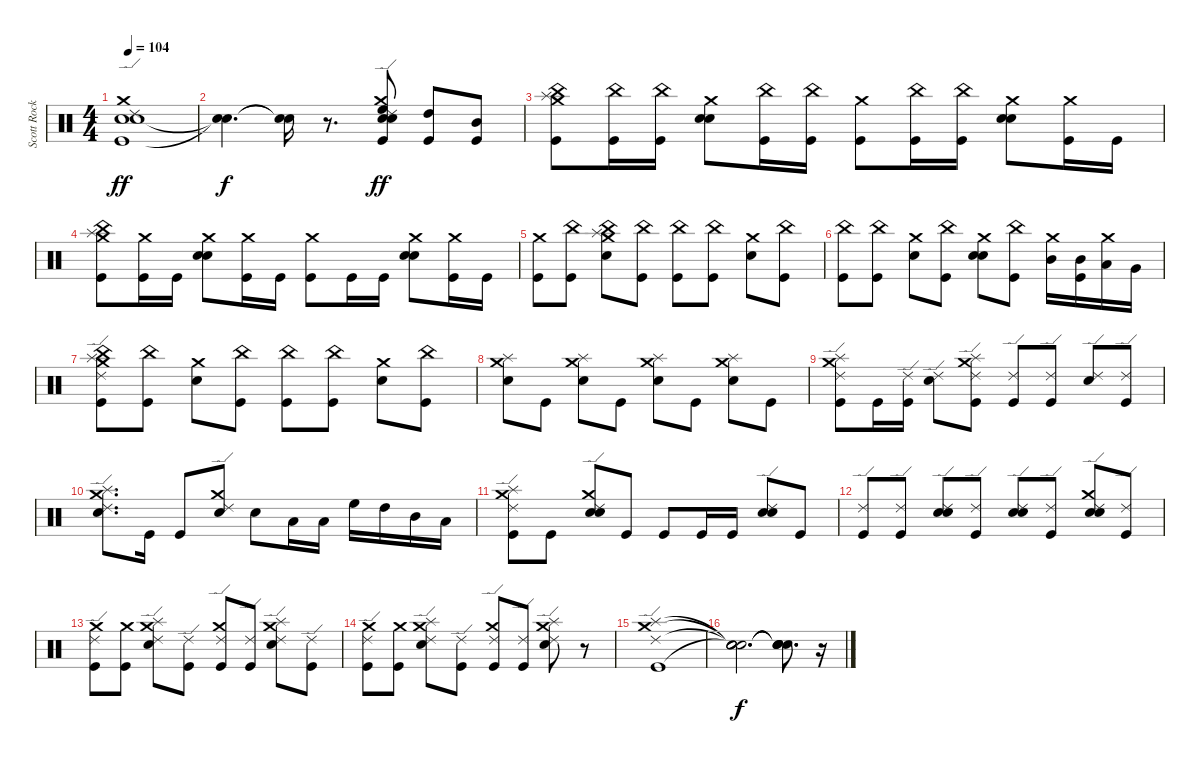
\track ("Scott Rockenfield" "Scott Rock") {instrument percussion}
\staff {score}
\articulation defaults
\ts (4 4)
\tempo 104
\clef neutral
\ks c
("Kick (hit)" "Snare (hit) 2" "Electric Snare (hit)" "Crash medium (hit)" "Ride (edge) 2").1{dy ff} |
("Snare (hit)"{t} "Snare (hit)"{t}).4{d dy f} ("Snare (hit)"{t} "Snare (hit)"{t}).16 r.8{d} ("Kick (hit)" "Snare (hit) 2" "Electric Snare (hit)" "High Floor Tom (hit)" "Crash medium (hit)" "Ride (edge) 2").8{dy ff} ("Kick (hit)" "High Tom (hit)").8 ("Kick (hit)" "Mid Tom (hit)").8 |
("Kick (hit)" "China (hit)" "Splash (hit)" "Crash medium (hit)").8 ("Kick (hit)" "China (hit)").16 ("Kick (hit)" "China (hit)").16 ("Snare (hit) 2" "Electric Snare (hit)" "Crash medium (hit)").8 ("Kick (hit)" "China (hit)").16 ("Kick (hit)" "China (hit)").16 ("Kick (hit)" "Crash medium (hit)").8 ("Kick (hit)" "China (hit)").16 ("Kick (hit)" "China (hit)").16 ("Snare (hit) 2" "Electric Snare (hit)" "Crash medium (hit)").8 ("Kick (hit)" "Crash medium (hit)").16 "Kick (hit)".16 |
("Kick (hit)" "China (hit)" "Splash (hit)" "Crash medium (hit)").8 ("Kick (hit)" "Crash medium (hit)").16 "Kick (hit)".16 ("Snare (hit) 2" "Electric Snare (hit)" "Crash medium (hit)").8 ("Kick (hit)" "Crash medium (hit)").16 "Kick (hit)".16 ("Kick (hit)" "Crash medium (hit)").8 "Kick (hit)".16 "Kick (hit)".16 ("Snare (hit) 2" "Electric Snare (hit)" "Crash medium (hit)").8 ("Kick (hit)" "Crash medium (hit)").16 "Kick (hit)".16 |
("Kick (hit)" "Crash medium (hit)").8 ("Kick (hit)" "China (hit)").8 ("Electric Snare (hit)" "China (hit)" "Splash (hit)" "Crash medium (hit)").8 ("Kick (hit)" "China (hit)").8 ("Kick (hit)" "China (hit)").8 ("Kick (hit)" "China (hit)").8 ("Electric Snare (hit)" "Crash medium (hit)").8 ("Kick (hit)" "China (hit)").8 |
("Kick (hit)" "China (hit)").8 ("Kick (hit)" "China (hit)").8 ("Electric Snare (hit)" "Crash medium (hit)").8 ("Kick (hit)" "China (hit)").8 ("Snare (hit) 2" "Electric Snare (hit)" "Crash medium (hit)").8 ("Kick (hit)" "China (hit)").8 ("Mid Tom (hit)" "Crash medium (hit)").16 ("Kick (hit)" "Mid Tom (hit)").16 ("Low Tom (hit)" "Crash medium (hit)").16 "Very Low Tom (hit)".16 |
("Kick (hit)" "China (hit)" "Splash (hit)" "Crash medium (hit)" "Ride (edge) 2").8 ("Kick (hit)" "China (hit)").8 ("Electric Snare (hit)" "Crash medium (hit)").8 ("Kick (hit)" "China (hit)").8 ("Kick (hit)" "China (hit)").8 ("Kick (hit)" "China (hit)").8 ("Electric Snare (hit)" "Crash medium (hit)").8 ("Kick (hit)" "China (hit)").8 |
("Electric Snare (hit)" "Splash (hit)" "Crash medium (hit)").8 "Kick (hit)".8 ("Electric Snare (hit)" "Splash (hit)" "Crash medium (hit)").8 "Kick (hit)".8 ("Electric Snare (hit)" "Splash (hit)" "Crash medium (hit)").8 "Kick (hit)".8 ("Electric Snare (hit)" "Splash (hit)" "Crash medium (hit)").8 "Kick (hit)".8 |
("Kick (hit)" "Splash (hit)" "Crash medium (hit)" "Ride (edge) 2").8 "Kick (hit)".16 ("Kick (hit)" "Ride (edge) 2").16 ("Electric Snare (hit)" "Ride (edge) 2").8 ("Kick (hit)" "Splash (hit)" "Crash medium (hit)" "Ride (edge) 2").8 ("Kick (hit)" "Ride (edge) 2").8 ("Kick (hit)" "Ride (edge) 2").8 ("Electric Snare (hit)" "Ride (edge) 2").8 ("Kick (hit)" "Ride (edge) 2").8 |
("Electric Snare (hit)" "Splash (hit)" "Crash medium (hit)" "Ride (edge) 2").8{d} "Kick (hit)".16 "Kick (hit)".8 ("Electric Snare (hit)" "Crash medium (hit)" "Ride (edge) 2").8 "Electric Snare (hit)".8 "Low Tom (hit)".16 "Low Tom (hit)".16 "High Floor Tom (hit)".16 "High Tom (hit)".16 "Mid Tom (hit)".16 "Low Tom (hit)".16 |
("Kick (hit)" "Splash (hit)" "Crash medium (hit)" "Ride (edge) 2").8 "Kick (hit)".8 ("Snare (hit) 2" "Electric Snare (hit)" "Crash medium (hit)" "Ride (edge) 2").8 "Kick (hit)".8 "Kick (hit)".8 "Kick (hit)".16 "Kick (hit)".16 ("Snare (hit) 2" "Electric Snare (hit)" "Ride (edge) 2").8 "Kick (hit)".8 |
("Kick (hit)" "Ride (edge) 2").8 ("Kick (hit)" "Ride (edge) 2").8 ("Snare (hit) 2" "Electric Snare (hit)" "Ride (edge) 2").8 ("Kick (hit)" "Ride (edge) 2").8 ("Snare (hit) 2" "Electric Snare (hit)" "Ride (edge) 2").8 ("Kick (hit)" "Ride (edge) 2").8 ("Snare (hit) 2" "Electric Snare (hit)" "Crash medium (hit)" "Ride (edge) 2").8 ("Kick (hit)" "Ride (edge) 2").8 |
("Kick (hit)" "Crash medium (hit)" "Ride (edge) 2").8 ("Kick (hit)" "Crash medium (hit)").8 ("Electric Snare (hit)" "Splash (hit)" "Crash medium (hit)" "Ride (edge) 2").8 ("Kick (hit)" "Ride (edge) 2").8 ("Kick (hit)" "Crash medium (hit)" "Ride (edge) 2").8 ("Kick (hit)" "Ride (edge) 2").8 ("Electric Snare (hit)" "Splash (hit)" "Crash medium (hit)" "Ride (edge) 2").8 ("Kick (hit)" "Ride (edge) 2").8 |
("Kick (hit)" "Crash medium (hit)" "Ride (edge) 2").8 ("Kick (hit)" "Crash medium (hit)").8 ("Electric Snare (hit)" "Splash (hit)" "Crash medium (hit)" "Ride (edge) 2").8 ("Kick (hit)" "Ride (edge) 2").8 ("Kick (hit)" "Crash medium (hit)" "Ride (edge) 2").8 ("Kick (hit)" "Ride (edge) 2").8 ("Electric Snare (hit)" "Splash (hit)" "Crash medium (hit)" "Ride (edge) 2").8 r.8 |
("Kick (hit)" "Splash (hit)" "Crash medium (hit)" "Ride (edge) 2").1 |
("Snare (hit)"{t} "Snare (hit)"{t} "Snare (hit)"{t} "Snare (hit)"{t}).2{d dy f} ("Snare (hit)"{t} "Snare (hit)"{t} "Snare (hit)"{t} "Snare (hit)"{t}).8{d} r.16
